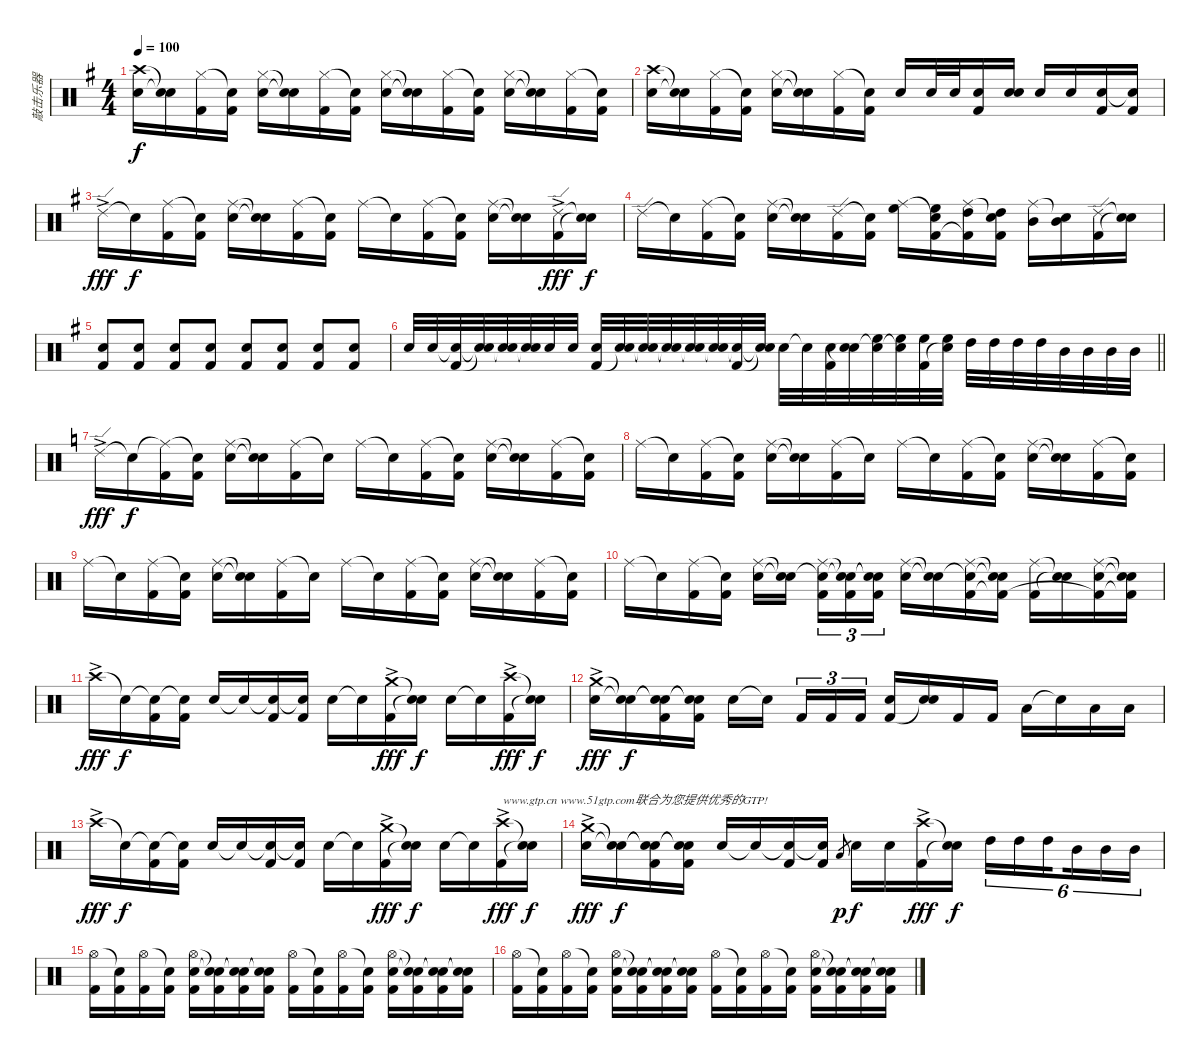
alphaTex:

\track ("敲击乐器" "敲击乐器") {instrument percussion}
\staff {score}
\articulation defaults
\ts (4 4)
\tempo 100
\clef neutral
\ks eminor
("Crash high (hit)" "Snare (hit) 2").16{dy f} ("Snare (hit)"{t} "Snare (hit) 2"{t}).16 ("Hi-Hat (closed)" "Kick (hit) 2").16 ("Snare (hit)"{t} "Kick (hit) 2").16 ("Hi-Hat (closed)" "Snare (hit) 2").16 ("Snare (hit)"{t} "Snare (hit) 2"{t}).16 ("Hi-Hat (closed)" "Kick (hit) 2").16 ("Snare (hit)"{t} "Kick (hit) 2").16 ("Hi-Hat (closed)" "Snare (hit) 2").16 ("Snare (hit)"{t} "Snare (hit)"{t}).16 ("Hi-Hat (closed)" "Kick (hit) 2").16 ("Snare (hit)"{t} "Kick (hit) 2").16 ("Hi-Hat (closed)" "Snare (hit) 2").16 ("Snare (hit)"{t} "Snare (hit)"{t}).16 ("Hi-Hat (closed)" "Kick (hit) 2").16 ("Snare (hit)"{t} "Kick (hit) 2").16 |
("Crash high (hit)" "Snare (hit) 2").16 ("Snare (hit)"{t} "Snare (hit) 2"{t}).16 ("Hi-Hat (closed)" "Kick (hit) 2").16 ("Snare (hit)"{t} "Kick (hit) 2").16 ("Hi-Hat (closed)" "Snare (hit) 2").16 ("Snare (hit)"{t} "Snare (hit) 2"{t}).16 ("Hi-Hat (closed)" "Kick (hit) 2").16 ("Snare (hit)"{t} "Kick (hit) 2").16 "Snare (hit) 2".16 "Snare (hit) 2".32 "Snare (hit) 2".32 ("Snare (hit) 2" "Kick (hit) 2").16 ("Snare (hit) 2" "Snare (hit) 2").16 "Snare (hit) 2".16 "Snare (hit) 2".16 ("Snare (hit) 2" "Kick (hit) 2").16 ("Snare (hit)"{t} "Kick (hit) 2").16 |
"Ride (edge) 2"{ac}.16{dy fff} "Snare (hit)"{t}.16{dy f} ("Ride (middle)" "Kick (hit) 2").16 ("Snare (hit)"{t} "Kick (hit) 2").16 ("Ride (middle)" "Snare (hit) 2").16 ("Snare (hit)"{t} "Snare (hit)"{t}).16 ("Ride (middle)" "Kick (hit) 2").16 ("Snare (hit)"{t} "Kick (hit) 2").16 "Ride (middle)".16 "Snare (hit)"{t}.16 ("Ride (middle)" "Kick (hit) 2").16 ("Snare (hit)"{t} "Kick (hit) 2").16 ("Ride (middle)" "Snare (hit) 2").16 ("Snare (hit)"{t} "Snare (hit)"{t}).16 ("Ride (edge) 2"{ac} "Kick (hit) 2").16{dy fff} ("Snare (hit)"{t} "Snare (hit)"{t}).16{dy f} |
"Ride (edge) 2".16 "Snare (hit)"{t}.16 ("Ride (middle)" "Kick (hit) 2").16 ("Snare (hit)"{t} "Kick (hit) 2").16 ("Ride (middle)" "Snare (hit) 2").16 ("Snare (hit)"{t} "Snare (hit)"{t}).16 ("Ride (edge) 2" "Kick (hit) 2").16 ("Snare (hit)"{t} "Kick (hit) 2").16 ("Ride (middle)" "High Floor Tom (hit)").16 ("Snare (hit)"{t} "High Floor Tom (hit)" "Kick (hit) 2").16 ("Ride (middle)" "High Tom (hit)" "Kick (hit) 2"{t}).16 ("Snare (hit)"{t} "High Tom (hit)" "Kick (hit) 2").16 ("Ride (middle)" "Mid Tom (hit)").16 ("Snare (hit)"{t} "Mid Tom (hit)").16 ("Ride (edge) 2" "Kick (hit) 2").16 ("Snare (hit)"{t} "Snare (hit)"{t}).16 |
("Snare (hit) 2" "Kick (hit) 2").8 ("Snare (hit) 2" "Kick (hit) 2").8 ("Snare (hit) 2" "Kick (hit) 2").8 ("Snare (hit) 2" "Kick (hit) 2").8 ("Snare (hit) 2" "Kick (hit) 2").8 ("Snare (hit) 2" "Kick (hit) 2").8 ("Snare (hit) 2" "Kick (hit) 2").8 ("Snare (hit) 2" "Kick (hit) 2").8 |
\barLineRight lightlight "Snare (hit) 2".32 "Snare (hit) 2".32
("Snare (hit)"{t} "Kick (hit) 2").32 ("Snare (hit)"{t} "Snare (hit)"{t}).32 ("Snare (hit) 2" "Snare (hit)"{t}).32 ("Snare (hit) 2" "Snare (hit)"{t}).32 "Snare (hit) 2".32 "Snare (hit) 2".32 ("Snare (hit) 2" "Kick (hit) 2").32 ("Snare (hit) 2" "Snare (hit)"{t}).32 ("Snare (hit)"{t} "Snare (hit)"{t}).32 ("Snare (hit)"{t} "Snare (hit)"{t}).32 ("Snare (hit) 2" "Snare (hit)"{t}).32 ("Snare (hit) 2" "Snare (hit)"{t}).32 ("Snare (hit)"{t} "Kick (hit) 2").32 ("Snare (hit)"{t} "Snare (hit)"{t}).32 "Snare (hit) 2".32 "Snare (hit)"{t}.32 ("Snare (hit) 2" "Kick (hit) 2").32 ("Snare (hit) 2" "Snare (hit)"{t}).32 ("High Floor Tom (hit)" "Snare (hit)"{t}).32 ("High Floor Tom (hit)" "Snare (hit)"{t}).32 ("High Floor Tom (hit)" "Kick (hit) 2").32 ("High Floor Tom (hit)" "Snare (hit)"{t}).32 "High Tom (hit)".32 "High Tom (hit)".32 "High Tom (hit)".32 "High Tom (hit)".32 "Mid Tom (hit)".32 "Mid Tom (hit)".32 "Mid Tom (hit)".32 "Mid Tom (hit)".32 |
\ks c "Ride (edge) 2"{ac}.16{dy fff} "Snare (hit)"{t}.16{dy f}
("Ride (middle)"{t} "Kick (hit) 2").16 ("Snare (hit)"{t} "Kick (hit) 2").16 ("Ride (middle)" "Snare (hit) 2").16 ("Snare (hit)"{t} "Snare (hit)"{t}).16 ("Ride (middle)" "Kick (hit) 2").16 "Snare (hit)"{t}.16 "Ride (middle)".16 "Snare (hit)"{t}.16 ("Ride (middle)" "Kick (hit) 2").16 ("Snare (hit)"{t} "Kick (hit) 2").16 ("Ride (middle)" "Snare (hit) 2").16 ("Snare (hit)"{t} "Snare (hit)"{t}).16 ("Ride (middle)" "Kick (hit) 2").16 ("Snare (hit)"{t} "Kick (hit) 2").16 |
"Ride (middle)".16 "Snare (hit)"{t}.16 ("Ride (middle)" "Kick (hit) 2").16 ("Snare (hit)"{t} "Kick (hit) 2").16 ("Ride (middle)" "Snare (hit) 2").16 ("Snare (hit)"{t} "Snare (hit)"{t}).16 ("Ride (middle)" "Kick (hit) 2").16 "Snare (hit)"{t}.16 "Ride (middle)".16 "Snare (hit)"{t}.16 ("Ride (middle)" "Kick (hit) 2").16 ("Snare (hit)"{t} "Kick (hit) 2").16 ("Ride (middle)" "Snare (hit) 2").16 ("Snare (hit)"{t} "Snare (hit)"{t}).16 ("Ride (middle)" "Kick (hit) 2").16 ("Snare (hit)"{t} "Kick (hit) 2").16 |
"Ride (middle)".16 "Snare (hit)"{t}.16 ("Ride (middle)" "Kick (hit) 2").16 ("Snare (hit)"{t} "Kick (hit) 2").16 ("Ride (middle)" "Snare (hit) 2").16 ("Snare (hit)"{t} "Snare (hit)"{t}).16 ("Ride (middle)" "Kick (hit) 2").16 "Snare (hit)"{t}.16 "Ride (middle)".16 "Snare (hit)"{t}.16 ("Ride (middle)" "Kick (hit) 2").16 ("Snare (hit)"{t} "Kick (hit) 2").16 ("Ride (middle)" "Snare (hit) 2").16 ("Snare (hit)"{t} "Snare (hit)"{t}).16 ("Ride (middle)" "Kick (hit) 2").16 ("Snare (hit)"{t} "Kick (hit) 2").16 |
"Ride (middle)".16 "Snare (hit)"{t}.16 ("Ride (middle)" "Kick (hit) 2").16 ("Snare (hit)"{t} "Kick (hit) 2").16 ("Ride (middle)" "Snare (hit) 2").16 ("Snare (hit)"{t} "Snare (hit)"{t}).16{beam splitsecondary} ("Ride (middle)" "Snare (hit)"{t} "Kick (hit) 2").16{tu (3 2)} ("Snare (hit)"{t} "Snare (hit)"{t} "Kick (hit) 2").16{tu (3 2)} ("Snare (hit)"{t} "Snare (hit)"{t} "Kick (hit) 2").16{tu (3 2)} ("Ride (middle)" "Snare (hit) 2").16 ("Snare (hit)"{t} "Snare (hit)"{t}).16 ("Ride (middle)" "Snare (hit)"{t} "Kick (hit) 2").16 ("Snare (hit)"{t} "Snare (hit)"{t} "Kick (hit) 2"{t}).16 ("Ride (middle)" "Kick (hit) 2").16 ("Snare (hit)"{t} "Snare (hit)"{t}).16 ("Ride (middle)" "Snare (hit) 2" "Kick (hit) 2"{t}).16 ("Snare (hit)"{t} "Snare (hit)"{t} "Kick (hit) 2"{t}).16 |
"Crash high (hit)"{ac}.16{dy fff} "Snare (hit)"{t}.16{dy f} ("Snare (hit)"{t} "Kick (hit) 2").16 ("Snare (hit)"{t} "Kick (hit) 2").16 "Snare (hit) 2".16 "Snare (hit)"{t}.16 ("Snare (hit)"{t} "Kick (hit) 2").16 ("Snare (hit)"{t} "Kick (hit) 2").16 "Snare (hit) 2".16 "Snare (hit)"{t}.16 ("Crash medium (hit)"{ac} "Kick (hit) 2").16{dy fff} ("Snare (hit)"{t} "Snare (hit)"{t}).16{dy f} "Snare (hit) 2".16 "Snare (hit)"{t}.16 ("Crash high (hit)"{ac} "Kick (hit) 2").16{dy fff} ("Snare (hit)"{t} "Snare (hit)"{t}).16{dy f} |
("Crash medium (hit)"{ac} "Snare (hit) 2").16{dy fff} ("Snare (hit)"{t} "Snare (hit)"{t}).16{dy f} ("Snare (hit)"{t} "Snare (hit)"{t} "Kick (hit) 2").16 ("Snare (hit)"{t} "Snare (hit)"{t} "Kick (hit) 2").16 "Snare (hit) 2".16 "Snare (hit)"{t}.16{beam splitsecondary} "Kick (hit) 2".16{tu (3 2)} "Kick (hit) 2".16{tu (3 2)} "Kick (hit) 2".16{tu (3 2)} ("Snare (hit) 2" "Kick (hit) 2").16 ("Snare (hit) 2" "Snare (hit)"{t}).16 "Kick (hit) 2".16 "Kick (hit) 2".16 "Low Tom (hit)".16 "Snare (hit)"{t}.16 "Low Floor Tom (hit)".16 "Low Floor Tom (hit)".16 |
"Crash high (hit)"{ac}.16{dy fff} "Snare (hit)"{t}.16{dy f} ("Snare (hit)"{t} "Kick (hit) 2").16 ("Snare (hit)"{t} "Kick (hit) 2").16 "Snare (hit) 2".16 "Snare (hit)"{t}.16 ("Snare (hit)"{t} "Kick (hit) 2").16 ("Snare (hit)"{t} "Kick (hit) 2").16 "Snare (hit) 2".16 "Snare (hit)"{t}.16 ("Crash medium (hit)"{ac} "Kick (hit) 2").16{dy fff} ("Snare (hit)"{t} "Snare (hit)"{t}).16{dy f} "Snare (hit) 2".16 "Snare (hit)"{t}.16 ("Crash high (hit)"{ac} "Kick (hit) 2").16{txt "www.gtp.cn www.51gtp.com联合为您提供优秀的GTP!" dy fff} ("Snare (hit)"{t} "Snare (hit)"{t}).16{dy f} |
("Crash medium (hit)"{ac} "Snare (hit) 2").16{dy fff} ("Snare (hit)"{t} "Snare (hit)"{t}).16{dy f} ("Snare (hit)"{t} "Snare (hit)"{t} "Kick (hit) 2").16 ("Snare (hit)"{t} "Snare (hit)"{t} "Kick (hit) 2").16 "Snare (hit) 2".16 "Snare (hit)"{t}.16 ("Snare (hit)"{t} "Kick (hit) 2").16 ("Snare (hit)"{t} "Kick (hit) 2").16 "Low Tom (hit)"{h}.8{gr dy p} "Snare (hit) 2".16{dy f} "Snare (hit) 2".16 ("Crash high (hit)"{ac} "Kick (hit) 2").16{dy fff} ("Snare (hit)"{t} "Snare (hit)"{t}).16{dy f} "High Tom (hit)".16{tu (6 4)} "High Tom (hit)".16{tu (6 4)} "High Tom (hit)".16{tu (6 4) beam splitsecondary} "Mid Tom (hit)".16{tu (6 4)} "Mid Tom (hit)".16{tu (6 4)} "Mid Tom (hit)".16{tu (6 4)} |
("Hi-Hat (open)" "Kick (hit) 2").16 ("Snare (hit)"{t} "Kick (hit) 2").16 ("Hi-Hat (open)" "Kick (hit) 2").16 ("Snare (hit)"{t} "Kick (hit) 2").16 ("Hi-Hat (open)" "Snare (hit) 2" "Kick (hit) 2").16 ("Snare (hit)"{t} "Snare (hit)"{t} "Kick (hit) 2").16 ("Snare (hit)"{t} "Snare (hit)"{t} "Kick (hit) 2").16 ("Snare (hit)"{t} "Snare (hit)"{t} "Kick (hit) 2").16 ("Hi-Hat (open)" "Kick (hit) 2").16 ("Snare (hit)"{t} "Kick (hit) 2").16 ("Hi-Hat (open)" "Kick (hit) 2").16 ("Snare (hit)"{t} "Kick (hit) 2").16 ("Hi-Hat (open)" "Snare (hit) 2" "Kick (hit) 2").16 ("Snare (hit)"{t} "Snare (hit)"{t} "Kick (hit) 2").16 ("Snare (hit)"{t} "Snare (hit)"{t} "Kick (hit) 2").16 ("Snare (hit)"{t} "Snare (hit)"{t} "Kick (hit) 2").16 |
("Hi-Hat (open)" "Kick (hit) 2").16 ("Snare (hit)"{t} "Kick (hit) 2").16 ("Hi-Hat (open)" "Kick (hit) 2").16 ("Snare (hit)"{t} "Kick (hit) 2").16 ("Hi-Hat (open)" "Snare (hit) 2" "Kick (hit) 2").16 ("Snare (hit)"{t} "Snare (hit)"{t} "Kick (hit) 2").16 ("Snare (hit)"{t} "Snare (hit)"{t} "Kick (hit) 2").16 ("Snare (hit)"{t} "Snare (hit)"{t} "Kick (hit) 2").16 ("Hi-Hat (open)" "Kick (hit) 2").16 ("Snare (hit)"{t} "Kick (hit) 2").16 ("Hi-Hat (open)" "Kick (hit) 2").16 ("Snare (hit)"{t} "Kick (hit) 2").16 ("Hi-Hat (open)" "Snare (hit) 2" "Kick (hit) 2").16 ("Snare (hit)"{t} "Snare (hit)"{t} "Kick (hit) 2").16 ("Snare (hit)"{t} "Snare (hit)"{t} "Kick (hit) 2").16 ("Snare (hit)"{t} "Snare (hit)"{t} "Kick (hit) 2").16
